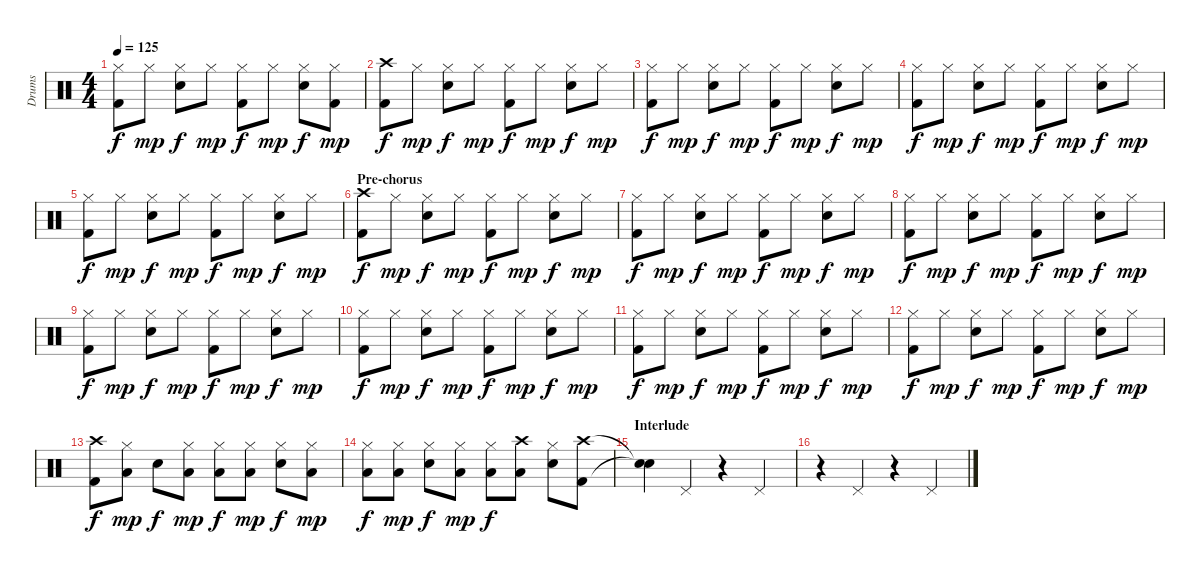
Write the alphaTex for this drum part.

\track ("Drums" "Drums") {instrument percussion}
\staff {score}
\articulation defaults
\ts (4 4)
\tempo 125
\clef neutral
\ks c
("Hi-Hat (closed)" "Kick (hit) 2").8{dy f} "Hi-Hat (closed)".8{dy mp} ("Hi-Hat (closed)" "Snare (hit) 2").8{dy f} "Hi-Hat (closed)".8{dy mp} ("Hi-Hat (closed)" "Kick (hit) 2").8{dy f} "Hi-Hat (closed)".8{dy mp} ("Hi-Hat (closed)" "Snare (hit) 2").8{dy f} ("Hi-Hat (closed)" "Kick (hit) 2").8{dy mp} |
("Crash high (hit)" "Kick (hit) 2").8{dy f} "Hi-Hat (closed)".8{dy mp} ("Hi-Hat (closed)" "Snare (hit) 2").8{dy f} "Hi-Hat (closed)".8{dy mp} ("Hi-Hat (closed)" "Kick (hit) 2").8{dy f} "Hi-Hat (closed)".8{dy mp} ("Hi-Hat (closed)" "Snare (hit) 2").8{dy f} "Hi-Hat (closed)".8{dy mp} |
("Hi-Hat (closed)" "Kick (hit) 2").8{dy f} "Hi-Hat (closed)".8{dy mp} ("Hi-Hat (closed)" "Snare (hit) 2").8{dy f} "Hi-Hat (closed)".8{dy mp} ("Hi-Hat (closed)" "Kick (hit) 2").8{dy f} "Hi-Hat (closed)".8{dy mp} ("Hi-Hat (closed)" "Snare (hit) 2").8{dy f} "Hi-Hat (closed)".8{dy mp} |
("Hi-Hat (closed)" "Kick (hit) 2").8{dy f} "Hi-Hat (closed)".8{dy mp} ("Hi-Hat (closed)" "Snare (hit) 2").8{dy f} "Hi-Hat (closed)".8{dy mp} ("Hi-Hat (closed)" "Kick (hit) 2").8{dy f} "Hi-Hat (closed)".8{dy mp} ("Hi-Hat (closed)" "Snare (hit) 2").8{dy f} "Hi-Hat (closed)".8{dy mp} |
("Hi-Hat (closed)" "Kick (hit) 2").8{dy f} "Hi-Hat (closed)".8{dy mp} ("Hi-Hat (closed)" "Snare (hit) 2").8{dy f} "Hi-Hat (closed)".8{dy mp} ("Hi-Hat (closed)" "Kick (hit) 2").8{dy f} "Hi-Hat (closed)".8{dy mp} ("Hi-Hat (closed)" "Snare (hit) 2").8{dy f} "Hi-Hat (closed)".8{dy mp} |
\section ("" "Pre-chorus")
("Crash high (hit)" "Kick (hit) 2").8{dy f} "Hi-Hat (closed)".8{dy mp} ("Hi-Hat (closed)" "Snare (hit) 2").8{dy f} "Hi-Hat (closed)".8{dy mp} ("Hi-Hat (closed)" "Kick (hit) 2").8{dy f} "Hi-Hat (closed)".8{dy mp} ("Hi-Hat (closed)" "Snare (hit) 2").8{dy f} "Hi-Hat (closed)".8{dy mp} |
("Hi-Hat (closed)" "Kick (hit) 2").8{dy f} "Hi-Hat (closed)".8{dy mp} ("Hi-Hat (closed)" "Snare (hit) 2").8{dy f} "Hi-Hat (closed)".8{dy mp} ("Hi-Hat (closed)" "Kick (hit) 2").8{dy f} "Hi-Hat (closed)".8{dy mp} ("Hi-Hat (closed)" "Snare (hit) 2").8{dy f} "Hi-Hat (closed)".8{dy mp} |
("Hi-Hat (closed)" "Kick (hit) 2").8{dy f} "Hi-Hat (closed)".8{dy mp} ("Hi-Hat (closed)" "Snare (hit) 2").8{dy f} "Hi-Hat (closed)".8{dy mp} ("Hi-Hat (closed)" "Kick (hit) 2").8{dy f} "Hi-Hat (closed)".8{dy mp} ("Hi-Hat (closed)" "Snare (hit) 2").8{dy f} "Hi-Hat (closed)".8{dy mp} |
("Hi-Hat (closed)" "Kick (hit) 2").8{dy f} "Hi-Hat (closed)".8{dy mp} ("Hi-Hat (closed)" "Snare (hit) 2").8{dy f} "Hi-Hat (closed)".8{dy mp} ("Hi-Hat (closed)" "Kick (hit) 2").8{dy f} "Hi-Hat (closed)".8{dy mp} ("Hi-Hat (closed)" "Snare (hit) 2").8{dy f} "Hi-Hat (closed)".8{dy mp} |
("Hi-Hat (closed)" "Kick (hit) 2").8{dy f} "Hi-Hat (closed)".8{dy mp} ("Hi-Hat (closed)" "Snare (hit) 2").8{dy f} "Hi-Hat (closed)".8{dy mp} ("Hi-Hat (closed)" "Kick (hit) 2").8{dy f} "Hi-Hat (closed)".8{dy mp} ("Hi-Hat (closed)" "Snare (hit) 2").8{dy f} "Hi-Hat (closed)".8{dy mp} |
("Hi-Hat (closed)" "Kick (hit) 2").8{dy f} "Hi-Hat (closed)".8{dy mp} ("Hi-Hat (closed)" "Snare (hit) 2").8{dy f} "Hi-Hat (closed)".8{dy mp} ("Hi-Hat (closed)" "Kick (hit) 2").8{dy f} "Hi-Hat (closed)".8{dy mp} ("Hi-Hat (closed)" "Snare (hit) 2").8{dy f} "Hi-Hat (closed)".8{dy mp} |
("Hi-Hat (closed)" "Kick (hit) 2").8{dy f} "Hi-Hat (closed)".8{dy mp} ("Hi-Hat (closed)" "Snare (hit) 2").8{dy f} "Hi-Hat (closed)".8{dy mp} ("Hi-Hat (closed)" "Kick (hit) 2").8{dy f} "Hi-Hat (closed)".8{dy mp} ("Hi-Hat (closed)" "Snare (hit) 2").8{dy f} "Hi-Hat (closed)".8{dy mp} |
("Crash high (hit)" "Kick (hit) 2").8{dy f} ("Hi-Hat (closed)" "Low Floor Tom (hit)").8{dy mp} "Snare (hit) 2".8{dy f} ("Hi-Hat (closed)" "Low Floor Tom (hit)").8{dy mp} ("Hi-Hat (closed)" "Low Floor Tom (hit)").8{dy f} ("Hi-Hat (closed)" "Low Floor Tom (hit)").8{dy mp} ("Hi-Hat (closed)" "Snare (hit) 2").8{dy f} ("Hi-Hat (closed)" "Low Floor Tom (hit)").8{dy mp} |
("Hi-Hat (closed)" "Low Floor Tom (hit)").8{dy f} ("Hi-Hat (closed)" "Low Floor Tom (hit)").8{dy mp} ("Hi-Hat (closed)" "Snare (hit) 2").8{dy f} ("Hi-Hat (closed)" "Low Floor Tom (hit)").8{dy mp} ("Hi-Hat (closed)" "Low Floor Tom (hit)").8{dy f} ("Crash high (hit)" "Low Floor Tom (hit)").8 ("Hi-Hat (closed)" "Snare (hit) 2").8 ("Crash high (hit)" "Kick (hit) 2").8 |
\section ("" "Interlude")
("Snare (hit)"{t} "Snare (hit)"{t}).4 "Pedal Hi-Hat (hit)".4 r.4 "Pedal Hi-Hat (hit)".4 |
r.4 "Pedal Hi-Hat (hit)".4 r.4 "Pedal Hi-Hat (hit)".4
